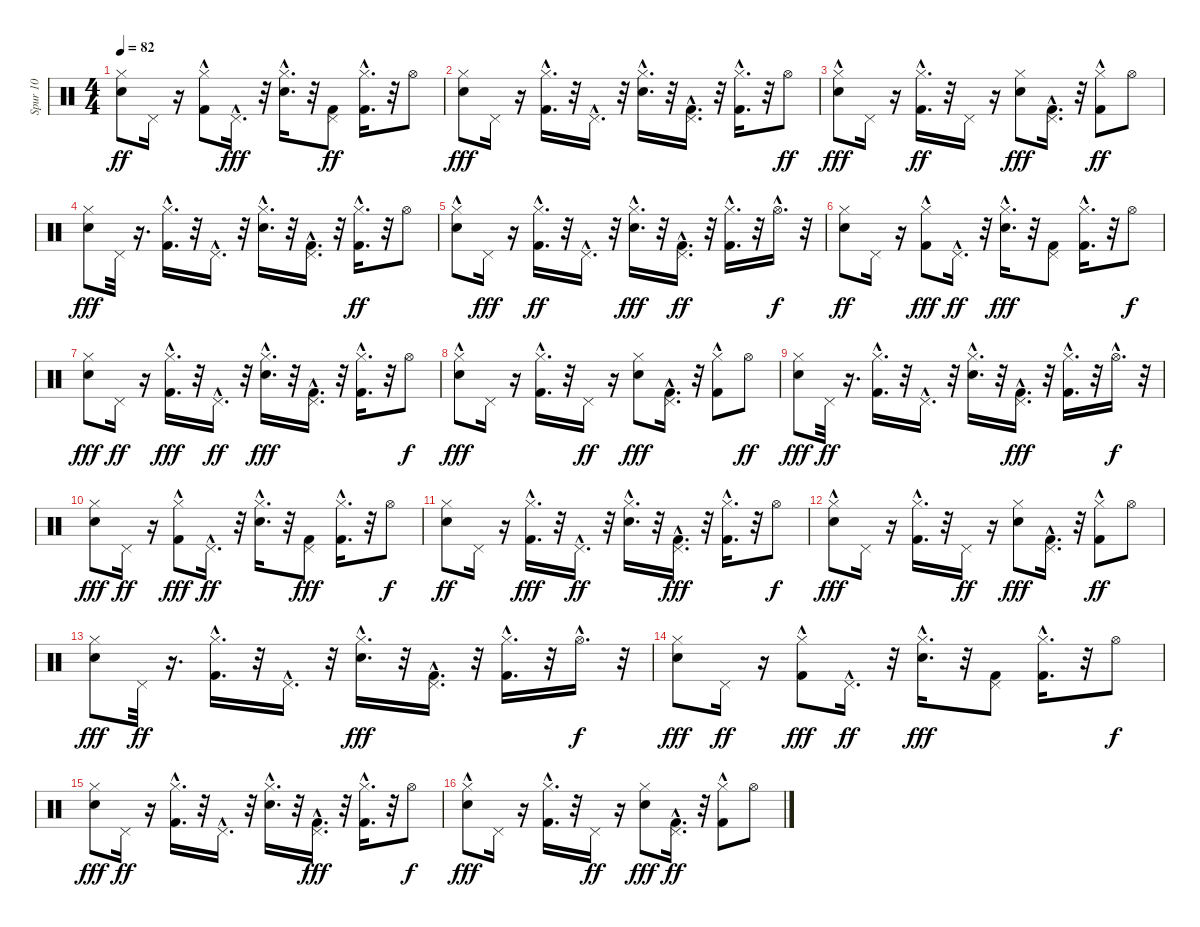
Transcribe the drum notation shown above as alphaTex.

\track ("Spur 10" "Spur 10") {instrument percussion}
\staff {score}
\articulation defaults
\ts (4 4)
\tempo 82
\clef neutral
\ks c
("Electric Snare (hit)" "Hi-Hat (closed)").8{dy ff} "Pedal Hi-Hat (hit)".16 r.16 ("Kick (hit) 2"{hac} "Hi-Hat (closed)").8 "Pedal Hi-Hat (hit)"{hac}.16{d dy fff} r.32 ("Hi-Hat (closed)"{hac} "Electric Snare (hit)").16{d} r.32 ("Kick (hit) 2" "Pedal Hi-Hat (hit)").8{dy ff} ("Kick (hit) 2"{hac} "Hi-Hat (closed)"{hac}).16{d} r.32 "Hi-Hat (open)".8 |
("Hi-Hat (closed)" "Electric Snare (hit)").8{dy fff} "Pedal Hi-Hat (hit)".16 r.16 ("Hi-Hat (closed)"{hac} "Kick (hit) 2"{hac}).16{d} r.32 "Pedal Hi-Hat (hit)"{hac}.16{d} r.32 ("Hi-Hat (closed)"{hac} "Electric Snare (hit)").16{d} r.32 ("Pedal Hi-Hat (hit)"{hac} "Kick (hit) 2").16{d} r.32 ("Hi-Hat (closed)"{hac} "Kick (hit) 2"{hac}).16{d} r.32 "Hi-Hat (open)".8{dy ff} |
("Hi-Hat (closed)" "Electric Snare (hit)"{hac}).8{dy fff} "Pedal Hi-Hat (hit)".16 r.16 ("Kick (hit) 2"{hac} "Hi-Hat (closed)"{hac}).16{d dy ff} r.32 "Pedal Hi-Hat (hit)".16 r.16 ("Hi-Hat (closed)" "Electric Snare (hit)").8{dy fff} ("Kick (hit) 2" "Pedal Hi-Hat (hit)"{hac}).16{d} r.32 ("Kick (hit) 2"{hac} "Hi-Hat (closed)").8{dy ff} "Hi-Hat (open)".8 |
("Hi-Hat (closed)" "Electric Snare (hit)").8{dy fff} "Pedal Hi-Hat (hit)".32 r.16{d} ("Hi-Hat (closed)"{hac} "Kick (hit) 2"{hac}).16{d} r.32 "Pedal Hi-Hat (hit)"{hac}.16{d} r.32 ("Electric Snare (hit)" "Hi-Hat (closed)"{hac}).16{d} r.32 ("Pedal Hi-Hat (hit)"{hac} "Kick (hit) 2").16{d} r.32 ("Kick (hit) 2"{hac} "Hi-Hat (closed)"{hac}).16{d dy ff} r.32 "Hi-Hat (open)".8 |
("Electric Snare (hit)"{hac} "Hi-Hat (closed)").8 "Pedal Hi-Hat (hit)".16{dy fff} r.16 ("Kick (hit) 2"{hac} "Hi-Hat (closed)"{hac}).16{d dy ff} r.32 "Pedal Hi-Hat (hit)"{hac}.16{d} r.32 ("Hi-Hat (closed)"{hac} "Electric Snare (hit)").16{d dy fff} r.32 ("Kick (hit) 2" "Pedal Hi-Hat (hit)"{hac}).16{d dy ff} r.32 ("Kick (hit) 2"{hac} "Hi-Hat (closed)"{hac}).16{d} r.32 "Hi-Hat (open)"{hac}.16{d dy f} r.32 |
("Electric Snare (hit)" "Hi-Hat (closed)").8{dy ff} "Pedal Hi-Hat (hit)".16 r.16 ("Kick (hit) 2"{hac} "Hi-Hat (closed)").8{dy fff} "Pedal Hi-Hat (hit)"{hac}.16{d dy ff} r.32 ("Hi-Hat (closed)"{hac} "Electric Snare (hit)").16{d dy fff} r.32 ("Pedal Hi-Hat (hit)" "Kick (hit) 2").8 ("Hi-Hat (closed)"{hac} "Kick (hit) 2"{hac}).16{d} r.32 "Hi-Hat (open)".8{dy f} |
("Hi-Hat (closed)" "Electric Snare (hit)").8{dy fff} "Pedal Hi-Hat (hit)".16{dy ff} r.16 ("Hi-Hat (closed)"{hac} "Kick (hit) 2"{hac}).16{d dy fff} r.32 "Pedal Hi-Hat (hit)"{hac}.16{d dy ff} r.32 ("Hi-Hat (closed)"{hac} "Electric Snare (hit)").16{d dy fff} r.32 ("Pedal Hi-Hat (hit)"{hac} "Kick (hit) 2").16{d} r.32 ("Kick (hit) 2"{hac} "Hi-Hat (closed)"{hac}).16{d} r.32 "Hi-Hat (open)".8{dy f} |
("Electric Snare (hit)"{hac} "Hi-Hat (closed)").8{dy fff} "Pedal Hi-Hat (hit)".16 r.16 ("Kick (hit) 2"{hac} "Hi-Hat (closed)"{hac}).16{d} r.32 "Pedal Hi-Hat (hit)".16{dy ff} r.16 ("Hi-Hat (closed)" "Electric Snare (hit)").8{dy fff} ("Pedal Hi-Hat (hit)"{hac} "Kick (hit) 2").16{d} r.32 ("Hi-Hat (closed)" "Kick (hit) 2"{hac}).8 "Hi-Hat (open)".8{dy ff} |
("Electric Snare (hit)" "Hi-Hat (closed)").8{dy fff} "Pedal Hi-Hat (hit)".32{dy ff} r.16{d} ("Kick (hit) 2"{hac} "Hi-Hat (closed)"{hac}).16{d} r.32 "Pedal Hi-Hat (hit)"{hac}.16{d} r.32 ("Electric Snare (hit)" "Hi-Hat (closed)"{hac}).16{d} r.32 ("Pedal Hi-Hat (hit)"{hac} "Kick (hit) 2").16{d dy fff} r.32 ("Hi-Hat (closed)"{hac} "Kick (hit) 2"{hac}).16{d} r.32 "Hi-Hat (open)"{hac}.16{d dy f} r.32 |
("Hi-Hat (closed)" "Electric Snare (hit)").8{dy fff} "Pedal Hi-Hat (hit)".16{dy ff} r.16 ("Hi-Hat (closed)" "Kick (hit) 2"{hac}).8{dy fff} "Pedal Hi-Hat (hit)"{hac}.16{d dy ff} r.32 ("Electric Snare (hit)" "Hi-Hat (closed)"{hac}).16{d} r.32 ("Pedal Hi-Hat (hit)" "Kick (hit) 2").8{dy fff} ("Hi-Hat (closed)"{hac} "Kick (hit) 2"{hac}).16{d} r.32 "Hi-Hat (open)".8{dy f} |
("Electric Snare (hit)" "Hi-Hat (closed)").8{dy ff} "Pedal Hi-Hat (hit)".16 r.16 ("Hi-Hat (closed)"{hac} "Kick (hit) 2"{hac}).16{d dy fff} r.32 "Pedal Hi-Hat (hit)"{hac}.16{d dy ff} r.32 ("Electric Snare (hit)" "Hi-Hat (closed)"{hac}).16{d} r.32 ("Kick (hit) 2" "Pedal Hi-Hat (hit)"{hac}).16{d dy fff} r.32 ("Kick (hit) 2"{hac} "Hi-Hat (closed)"{hac}).16{d} r.32 "Hi-Hat (open)".8{dy f} |
("Electric Snare (hit)"{hac} "Hi-Hat (closed)").8{dy fff} "Pedal Hi-Hat (hit)".16 r.16 ("Hi-Hat (closed)"{hac} "Kick (hit) 2"{hac}).16{d} r.32 "Pedal Hi-Hat (hit)".16{dy ff} r.16 ("Hi-Hat (closed)" "Electric Snare (hit)").8{dy fff} ("Pedal Hi-Hat (hit)"{hac} "Kick (hit) 2").16{d} r.32 ("Kick (hit) 2"{hac} "Hi-Hat (closed)").8{dy ff} "Hi-Hat (open)".8 |
("Hi-Hat (closed)" "Electric Snare (hit)").8{dy fff} "Pedal Hi-Hat (hit)".32{dy ff} r.16{d} ("Kick (hit) 2"{hac} "Hi-Hat (closed)"{hac}).16{d} r.32 "Pedal Hi-Hat (hit)"{hac}.16{d} r.32 ("Hi-Hat (closed)"{hac} "Electric Snare (hit)").16{d dy fff} r.32 ("Pedal Hi-Hat (hit)"{hac} "Kick (hit) 2").16{d} r.32 ("Hi-Hat (closed)"{hac} "Kick (hit) 2"{hac}).16{d} r.32 "Hi-Hat (open)"{hac}.16{d dy f} r.32 |
("Hi-Hat (closed)" "Electric Snare (hit)").8{dy fff} "Pedal Hi-Hat (hit)".16{dy ff} r.16 ("Kick (hit) 2"{hac} "Hi-Hat (closed)").8{dy fff} "Pedal Hi-Hat (hit)"{hac}.16{d dy ff} r.32 ("Hi-Hat (closed)"{hac} "Electric Snare (hit)").16{d dy fff} r.32 ("Kick (hit) 2" "Pedal Hi-Hat (hit)").8 ("Kick (hit) 2"{hac} "Hi-Hat (closed)"{hac}).16{d} r.32 "Hi-Hat (open)".8{dy f} |
("Hi-Hat (closed)" "Electric Snare (hit)").8{dy fff} "Pedal Hi-Hat (hit)".16{dy ff} r.16 ("Kick (hit) 2"{hac} "Hi-Hat (closed)"{hac}).16{d} r.32 "Pedal Hi-Hat (hit)"{hac}.16{d} r.32 ("Electric Snare (hit)" "Hi-Hat (closed)"{hac}).16{d} r.32 ("Kick (hit) 2" "Pedal Hi-Hat (hit)"{hac}).16{d dy fff} r.32 ("Kick (hit) 2"{hac} "Hi-Hat (closed)"{hac}).16{d} r.32 "Hi-Hat (open)".8{dy f} |
("Hi-Hat (closed)" "Electric Snare (hit)"{hac}).8{dy fff} "Pedal Hi-Hat (hit)".16 r.16 ("Hi-Hat (closed)"{hac} "Kick (hit) 2"{hac}).16{d} r.32 "Pedal Hi-Hat (hit)".16{dy ff} r.16 ("Hi-Hat (closed)" "Electric Snare (hit)").8{dy fff} ("Kick (hit) 2" "Pedal Hi-Hat (hit)"{hac}).16{d dy ff} r.32 ("Kick (hit) 2"{hac} "Hi-Hat (closed)").8 "Hi-Hat (open)".8
